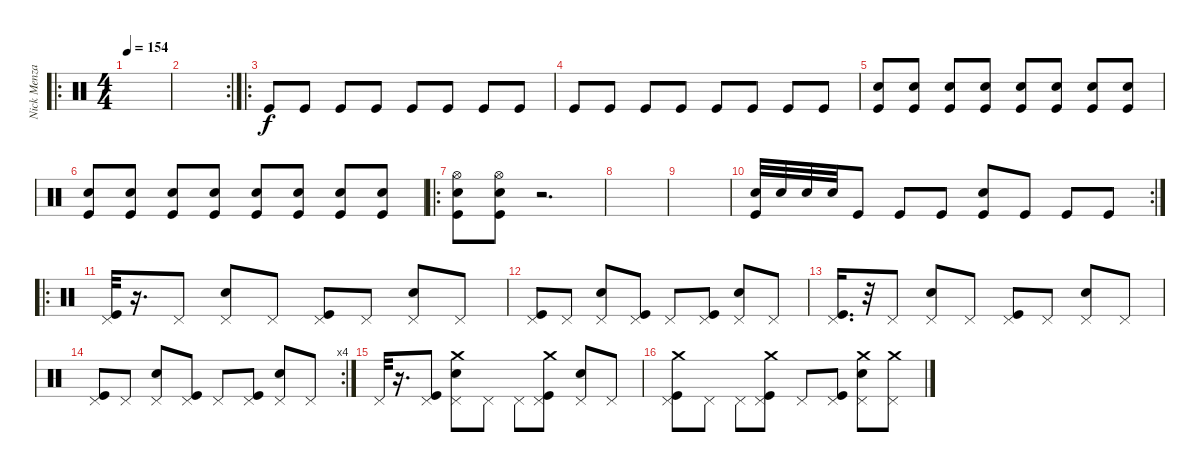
\track ("Nick Menza" "Nick Menza") {instrument percussion}
\staff {score}
\articulation defaults
\ro
\ts (4 4)
\tempo 154
\clef neutral
\ks c
|
\rc 2
|
\ro "Kick (hit)".8 "Kick (hit)".8 "Kick (hit)".8 "Kick (hit)".8 "Kick (hit)".8 "Kick (hit)".8 "Kick (hit)".8 "Kick (hit)".8
|
"Kick (hit)".8 "Kick (hit)".8 "Kick (hit)".8 "Kick (hit)".8 "Kick (hit)".8 "Kick (hit)".8 "Kick (hit)".8 "Kick (hit)".8 |
("Kick (hit)" "Electric Snare (hit)").8 ("Electric Snare (hit)" "Kick (hit)").8 ("Kick (hit)" "Electric Snare (hit)").8 ("Electric Snare (hit)" "Kick (hit)").8 ("Kick (hit)" "Electric Snare (hit)").8 ("Kick (hit)" "Electric Snare (hit)").8 ("Kick (hit)" "Electric Snare (hit)").8 ("Kick (hit)" "Electric Snare (hit)").8 |
("Kick (hit)" "Electric Snare (hit)").8 ("Kick (hit)" "Electric Snare (hit)").8 ("Kick (hit)" "Electric Snare (hit)").8 ("Kick (hit)" "Electric Snare (hit)").8 ("Kick (hit)" "Electric Snare (hit)").8 ("Kick (hit)" "Electric Snare (hit)").8 ("Kick (hit)" "Electric Snare (hit)").8 ("Kick (hit)" "Electric Snare (hit)").8 |
\ro
("Kick (hit)" "Electric Snare (hit)" "Hi-Hat (open)").8 ("Kick (hit)" "Electric Snare (hit)" "Hi-Hat (open)").8 r.2{d} |
|
|
\rc 2
("Kick (hit)" "Electric Snare (hit)").32 "Electric Snare (hit)".32 "Electric Snare (hit)".32 "Electric Snare (hit)".32 "Kick (hit)".8 "Kick (hit)".8 "Kick (hit)".8 ("Kick (hit)" "Electric Snare (hit)").8 "Kick (hit)".8 "Kick (hit)".8 "Kick (hit)".8 |
\ro
("Pedal Hi-Hat (hit)" "Kick (hit)").32 r.16{d} "Pedal Hi-Hat (hit)".8 ("Pedal Hi-Hat (hit)" "Electric Snare (hit)").8 "Pedal Hi-Hat (hit)".8 ("Kick (hit)" "Pedal Hi-Hat (hit)").8 "Pedal Hi-Hat (hit)".8 ("Electric Snare (hit)" "Pedal Hi-Hat (hit)").8 "Pedal Hi-Hat (hit)".8 |
("Kick (hit)" "Pedal Hi-Hat (hit)").8 "Pedal Hi-Hat (hit)".8 ("Pedal Hi-Hat (hit)" "Electric Snare (hit)").8 ("Pedal Hi-Hat (hit)" "Kick (hit)").8 "Pedal Hi-Hat (hit)".8 ("Kick (hit)" "Pedal Hi-Hat (hit)").8 ("Electric Snare (hit)" "Pedal Hi-Hat (hit)").8 "Pedal Hi-Hat (hit)".8 |
("Pedal Hi-Hat (hit)" "Kick (hit)").16{d} r.32 "Pedal Hi-Hat (hit)".8 ("Electric Snare (hit)" "Pedal Hi-Hat (hit)").8 "Pedal Hi-Hat (hit)".8 ("Kick (hit)" "Pedal Hi-Hat (hit)").8 "Pedal Hi-Hat (hit)".8 ("Electric Snare (hit)" "Pedal Hi-Hat (hit)").8 "Pedal Hi-Hat (hit)".8 |
\rc 4
("Kick (hit)" "Pedal Hi-Hat (hit)").8 "Pedal Hi-Hat (hit)".8 ("Electric Snare (hit)" "Pedal Hi-Hat (hit)").8 ("Pedal Hi-Hat (hit)" "Kick (hit)").8 "Pedal Hi-Hat (hit)".8 ("Kick (hit)" "Pedal Hi-Hat (hit)").8 ("Electric Snare (hit)" "Pedal Hi-Hat (hit)").8 "Pedal Hi-Hat (hit)".8 |
"Pedal Hi-Hat (hit)".32 r.16{d} ("Pedal Hi-Hat (hit)" "Kick (hit)").8 ("Electric Snare (hit)" "Pedal Hi-Hat (hit)" "Crash medium (hit)").8 "Pedal Hi-Hat (hit)".8 "Pedal Hi-Hat (hit)".8 ("Kick (hit)" "Pedal Hi-Hat (hit)" "Crash medium (hit)").8 ("Electric Snare (hit)" "Pedal Hi-Hat (hit)").8 "Pedal Hi-Hat (hit)".8 |
("Crash medium (hit)" "Kick (hit)" "Pedal Hi-Hat (hit)").8 "Pedal Hi-Hat (hit)".8 "Pedal Hi-Hat (hit)".8 ("Crash medium (hit)" "Pedal Hi-Hat (hit)" "Kick (hit)").8 "Pedal Hi-Hat (hit)".8 ("Kick (hit)" "Pedal Hi-Hat (hit)").8 ("Crash medium (hit)" "Electric Snare (hit)" "Pedal Hi-Hat (hit)").8 ("Crash medium (hit)" "Pedal Hi-Hat (hit)").8
